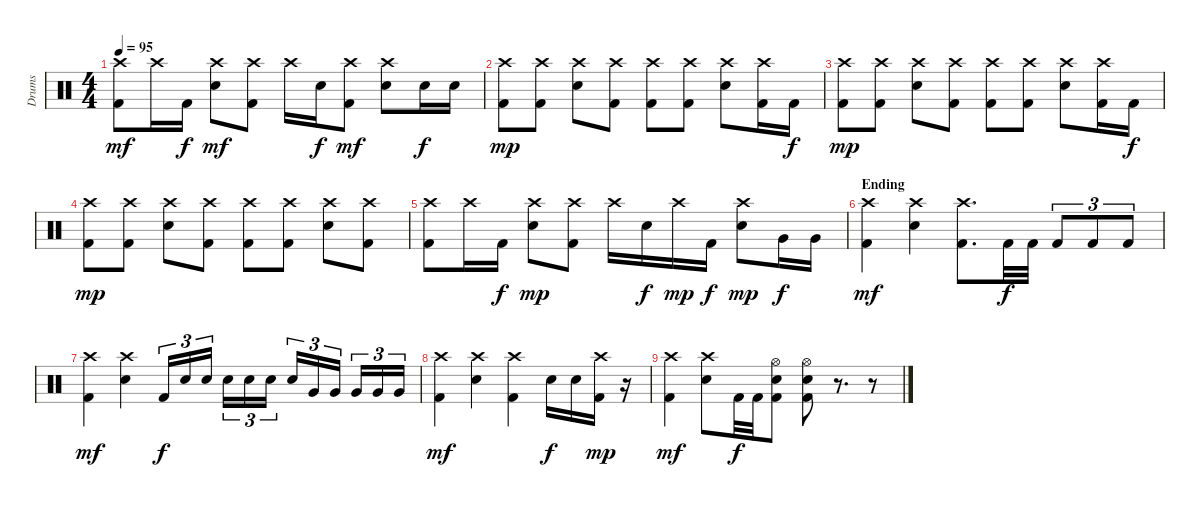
\track ("Drums" "Drums") {instrument percussion}
\staff {score}
\articulation defaults
\ts (4 4)
\tempo 95
\clef neutral
\ks c
("Crash high (hit)" "Kick (hit) 2").8{dy mf} "Crash high (hit)".16 "Kick (hit) 2".16{dy f} ("Crash high (hit)" "Electric Snare (hit)").8{dy mf} ("Crash high (hit)" "Kick (hit) 2").8 "Crash high (hit)".16 "Electric Snare (hit)".16{dy f} ("Crash high (hit)" "Kick (hit) 2").8{dy mf} ("Crash high (hit)" "Electric Snare (hit)").8 "Electric Snare (hit)".16{dy f} "Electric Snare (hit)".16 |
("Crash high (hit)" "Kick (hit) 2").8{dy mp} ("Crash high (hit)" "Kick (hit) 2").8 ("Crash high (hit)" "Electric Snare (hit)").8 ("Crash high (hit)" "Kick (hit) 2").8 ("Crash high (hit)" "Kick (hit) 2").8 ("Crash high (hit)" "Kick (hit) 2").8 ("Crash high (hit)" "Electric Snare (hit)").8 ("Crash high (hit)" "Kick (hit) 2").16 "Kick (hit) 2".16{dy f} |
("Crash high (hit)" "Kick (hit) 2").8{dy mp} ("Crash high (hit)" "Kick (hit) 2").8 ("Crash high (hit)" "Electric Snare (hit)").8 ("Crash high (hit)" "Kick (hit) 2").8 ("Crash high (hit)" "Kick (hit) 2").8 ("Crash high (hit)" "Kick (hit) 2").8 ("Crash high (hit)" "Electric Snare (hit)").8 ("Crash high (hit)" "Kick (hit) 2").16 "Kick (hit) 2".16{dy f} |
("Crash high (hit)" "Kick (hit) 2").8{dy mp} ("Crash high (hit)" "Kick (hit) 2").8 ("Crash high (hit)" "Electric Snare (hit)").8 ("Crash high (hit)" "Kick (hit) 2").8 ("Crash high (hit)" "Kick (hit) 2").8 ("Crash high (hit)" "Kick (hit) 2").8 ("Crash high (hit)" "Electric Snare (hit)").8 ("Crash high (hit)" "Kick (hit) 2").8 |
("Crash high (hit)" "Kick (hit) 2").8 "Crash high (hit)".16 "Kick (hit) 2".16{dy f} ("Crash high (hit)" "Electric Snare (hit)").8{dy mp} ("Crash high (hit)" "Kick (hit) 2").8 "Crash high (hit)".16 "Electric Snare (hit)".16{dy f} "Crash high (hit)".16{dy mp} "Kick (hit) 2".16{dy f} ("Crash high (hit)" "Electric Snare (hit)").8{dy mp} "Very Low Tom (hit)".16{dy f} "Very Low Tom (hit)".16 |
\section ("" "Ending")
("Crash high (hit)" "Kick (hit) 2").4{dy mf} ("Crash high (hit)" "Electric Snare (hit)").4 ("Crash high (hit)" "Kick (hit) 2").8{d} "Kick (hit) 2".32{dy f} "Kick (hit) 2".32 "Kick (hit) 2".8{tu (3 2)} "Kick (hit) 2".8{tu (3 2)} "Kick (hit) 2".8{tu (3 2)} |
("Crash high (hit)" "Kick (hit) 2").4{dy mf} ("Crash high (hit)" "Electric Snare (hit)").4 "Kick (hit) 2".16{tu (3 2) dy f} "Electric Snare (hit)".16{tu (3 2)} "Electric Snare (hit)".16{tu (3 2)} "Electric Snare (hit)".16{tu (3 2)} "Electric Snare (hit)".16{tu (3 2)} "Electric Snare (hit)".16{tu (3 2)} "Electric Snare (hit)".16{tu (3 2)} "Very Low Tom (hit)".16{tu (3 2)} "Very Low Tom (hit)".16{tu (3 2)} "Very Low Tom (hit)".16{tu (3 2)} "Very Low Tom (hit)".16{tu (3 2)} "Very Low Tom (hit)".16{tu (3 2)} |
("Crash high (hit)" "Kick (hit) 2").4{dy mf} ("Crash high (hit)" "Electric Snare (hit)").4 ("Crash high (hit)" "Kick (hit) 2").4 "Electric Snare (hit)".16{dy f} "Electric Snare (hit)".16 ("Crash high (hit)" "Kick (hit) 2").16{dy mp} r.16 |
("Crash high (hit)" "Kick (hit) 2").4{dy mf} ("Crash high (hit)" "Electric Snare (hit)").8 "Kick (hit) 2".32{dy f} "Kick (hit) 2".32 ("Hi-Hat (open)" "Electric Snare (hit)" "Kick (hit) 2").8 ("Hi-Hat (open)" "Electric Snare (hit)" "Kick (hit) 2").8 r.8{d} r.8
